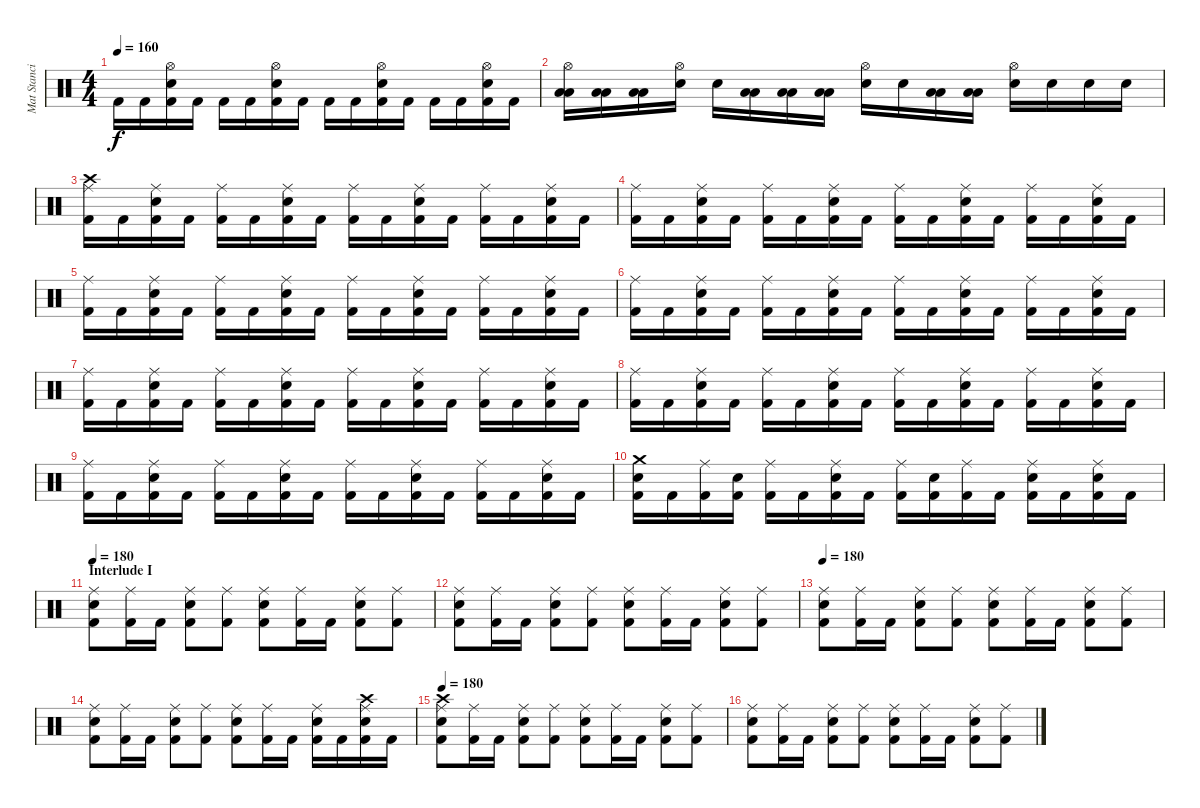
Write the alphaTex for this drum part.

\track ("Mat Stancioiu" "Mat Stanci") {instrument percussion}
\staff {score}
\articulation defaults
\ts (4 4)
\tempo 160
\clef neutral
\ks c "Kick (hit) 2".16{dy f} "Kick (hit) 2".16
("Electric Snare (hit)" "Kick (hit) 2" "Hi-Hat (open)").16 "Kick (hit) 2".16 "Kick (hit) 2".16 "Kick (hit) 2".16 ("Electric Snare (hit)" "Kick (hit) 2" "Hi-Hat (open)").16 "Kick (hit) 2".16 "Kick (hit) 2".16 "Kick (hit) 2".16 ("Electric Snare (hit)" "Kick (hit) 2" "Hi-Hat (open)").16 "Kick (hit) 2".16 "Kick (hit) 2".16 "Kick (hit) 2".16 ("Electric Snare (hit)" "Kick (hit) 2" "Hi-Hat (open)").16 "Kick (hit) 2".16 |
("Low Tom (hit)" "Low Tom (hit)" "Hi-Hat (open)").16 ("Low Tom (hit)" "Low Tom (hit)").16 ("Low Tom (hit)" "Low Tom (hit)").16 ("Electric Snare (hit)" "Hi-Hat (open)").16 "Electric Snare (hit)".16 ("Low Tom (hit)" "Low Tom (hit)").16 ("Low Tom (hit)" "Low Tom (hit)").16 ("Low Tom (hit)" "Low Tom (hit)").16 ("Electric Snare (hit)" "Hi-Hat (open)").16 "Electric Snare (hit)".16 ("Low Tom (hit)" "Low Tom (hit)").16 ("Low Tom (hit)" "Low Tom (hit)").16 ("Electric Snare (hit)" "Hi-Hat (open)").16 "Electric Snare (hit)".16 "Electric Snare (hit)".16 "Electric Snare (hit)".16 |
("Crash high (hit)" "Kick (hit) 2" "Ride (middle)").16 "Kick (hit) 2".16 ("Electric Snare (hit)" "Kick (hit) 2" "Ride (middle)").16 "Kick (hit) 2".16 ("Kick (hit) 2" "Ride (middle)").16 "Kick (hit) 2".16 ("Electric Snare (hit)" "Kick (hit) 2" "Ride (middle)").16 "Kick (hit) 2".16 ("Kick (hit) 2" "Ride (middle)").16 "Kick (hit) 2".16 ("Electric Snare (hit)" "Kick (hit) 2" "Ride (middle)").16 "Kick (hit) 2".16 ("Kick (hit) 2" "Ride (middle)").16 "Kick (hit) 2".16 ("Electric Snare (hit)" "Kick (hit) 2" "Ride (middle)").16 "Kick (hit) 2".16 |
("Kick (hit) 2" "Ride (middle)").16 "Kick (hit) 2".16 ("Electric Snare (hit)" "Kick (hit) 2" "Ride (middle)").16 "Kick (hit) 2".16 ("Kick (hit) 2" "Ride (middle)").16 "Kick (hit) 2".16 ("Electric Snare (hit)" "Kick (hit) 2" "Ride (middle)").16 "Kick (hit) 2".16 ("Kick (hit) 2" "Ride (middle)").16 "Kick (hit) 2".16 ("Electric Snare (hit)" "Kick (hit) 2" "Ride (middle)").16 "Kick (hit) 2".16 ("Kick (hit) 2" "Ride (middle)").16 "Kick (hit) 2".16 ("Electric Snare (hit)" "Kick (hit) 2" "Ride (middle)").16 "Kick (hit) 2".16 |
("Kick (hit) 2" "Ride (middle)").16 "Kick (hit) 2".16 ("Electric Snare (hit)" "Kick (hit) 2" "Ride (middle)").16 "Kick (hit) 2".16 ("Kick (hit) 2" "Ride (middle)").16 "Kick (hit) 2".16 ("Electric Snare (hit)" "Kick (hit) 2" "Ride (middle)").16 "Kick (hit) 2".16 ("Kick (hit) 2" "Ride (middle)").16 "Kick (hit) 2".16 ("Electric Snare (hit)" "Kick (hit) 2" "Ride (middle)").16 "Kick (hit) 2".16 ("Kick (hit) 2" "Ride (middle)").16 "Kick (hit) 2".16 ("Electric Snare (hit)" "Kick (hit) 2" "Ride (middle)").16 "Kick (hit) 2".16 |
("Kick (hit) 2" "Ride (middle)").16 "Kick (hit) 2".16 ("Electric Snare (hit)" "Kick (hit) 2" "Ride (middle)").16 "Kick (hit) 2".16 ("Kick (hit) 2" "Ride (middle)").16 "Kick (hit) 2".16 ("Electric Snare (hit)" "Kick (hit) 2" "Ride (middle)").16 "Kick (hit) 2".16 ("Kick (hit) 2" "Ride (middle)").16 "Kick (hit) 2".16 ("Electric Snare (hit)" "Kick (hit) 2" "Ride (middle)").16 "Kick (hit) 2".16 ("Kick (hit) 2" "Ride (middle)").16 "Kick (hit) 2".16 ("Electric Snare (hit)" "Kick (hit) 2" "Ride (middle)").16 "Kick (hit) 2".16 |
("Kick (hit) 2" "Ride (middle)").16 "Kick (hit) 2".16 ("Electric Snare (hit)" "Kick (hit) 2" "Ride (middle)").16 "Kick (hit) 2".16 ("Kick (hit) 2" "Ride (middle)").16 "Kick (hit) 2".16 ("Electric Snare (hit)" "Kick (hit) 2" "Ride (middle)").16 "Kick (hit) 2".16 ("Kick (hit) 2" "Ride (middle)").16 "Kick (hit) 2".16 ("Electric Snare (hit)" "Kick (hit) 2" "Ride (middle)").16 "Kick (hit) 2".16 ("Kick (hit) 2" "Ride (middle)").16 "Kick (hit) 2".16 ("Electric Snare (hit)" "Kick (hit) 2" "Ride (middle)").16 "Kick (hit) 2".16 |
("Kick (hit) 2" "Ride (middle)").16 "Kick (hit) 2".16 ("Electric Snare (hit)" "Kick (hit) 2" "Ride (middle)").16 "Kick (hit) 2".16 ("Kick (hit) 2" "Ride (middle)").16 "Kick (hit) 2".16 ("Electric Snare (hit)" "Kick (hit) 2" "Ride (middle)").16 "Kick (hit) 2".16 ("Kick (hit) 2" "Ride (middle)").16 "Kick (hit) 2".16 ("Electric Snare (hit)" "Kick (hit) 2" "Ride (middle)").16 "Kick (hit) 2".16 ("Kick (hit) 2" "Ride (middle)").16 "Kick (hit) 2".16 ("Electric Snare (hit)" "Kick (hit) 2" "Ride (middle)").16 "Kick (hit) 2".16 |
("Kick (hit) 2" "Ride (middle)").16 "Kick (hit) 2".16 ("Electric Snare (hit)" "Kick (hit) 2" "Ride (middle)").16 "Kick (hit) 2".16 ("Kick (hit) 2" "Ride (middle)").16 "Kick (hit) 2".16 ("Electric Snare (hit)" "Kick (hit) 2" "Ride (middle)").16 "Kick (hit) 2".16 ("Kick (hit) 2" "Ride (middle)").16 "Kick (hit) 2".16 ("Electric Snare (hit)" "Kick (hit) 2" "Ride (middle)").16 "Kick (hit) 2".16 ("Kick (hit) 2" "Ride (middle)").16 "Kick (hit) 2".16 ("Electric Snare (hit)" "Kick (hit) 2" "Ride (middle)").16 "Kick (hit) 2".16 |
("Kick (hit) 2" "Crash medium (hit)" "Electric Snare (hit)").16 "Kick (hit) 2".16 ("Kick (hit) 2" "Ride (middle)").16 ("Kick (hit) 2" "Electric Snare (hit)").16 ("Kick (hit) 2" "Ride (middle)").16 "Kick (hit) 2".16 ("Kick (hit) 2" "Ride (middle)" "Electric Snare (hit)").16 "Kick (hit) 2".16 ("Kick (hit) 2" "Ride (middle)").16 ("Kick (hit) 2" "Electric Snare (hit)").16 ("Kick (hit) 2" "Ride (middle)").16 "Kick (hit) 2".16 ("Kick (hit) 2" "Ride (middle)" "Electric Snare (hit)").16 "Kick (hit) 2".16 ("Kick (hit) 2" "Ride (middle)" "Electric Snare (hit)").16 "Kick (hit) 2".16 |
\section ("" "Interlude I")
\tempo 180
("Kick (hit) 2" "Electric Snare (hit)" "Ride (middle)").8 ("Kick (hit) 2" "Ride (middle)").16 "Kick (hit) 2".16 ("Kick (hit) 2" "Electric Snare (hit)" "Ride (middle)").8 ("Kick (hit) 2" "Ride (middle)").8 ("Kick (hit) 2" "Electric Snare (hit)" "Ride (middle)").8 ("Kick (hit) 2" "Ride (middle)").16 "Kick (hit) 2".16 ("Kick (hit) 2" "Electric Snare (hit)" "Ride (middle)").8 ("Kick (hit) 2" "Ride (middle)").8 |
("Kick (hit) 2" "Electric Snare (hit)" "Ride (middle)").8 ("Kick (hit) 2" "Ride (middle)").16 "Kick (hit) 2".16 ("Kick (hit) 2" "Electric Snare (hit)" "Ride (middle)").8 ("Kick (hit) 2" "Ride (middle)").8 ("Kick (hit) 2" "Electric Snare (hit)" "Ride (middle)").8 ("Kick (hit) 2" "Ride (middle)").16 "Kick (hit) 2".16 ("Kick (hit) 2" "Electric Snare (hit)" "Ride (middle)").8 ("Kick (hit) 2" "Ride (middle)").8 |
\tempo 180
("Kick (hit) 2" "Electric Snare (hit)" "Ride (middle)").8 ("Kick (hit) 2" "Ride (middle)").16 "Kick (hit) 2".16 ("Kick (hit) 2" "Electric Snare (hit)" "Ride (middle)").8 ("Kick (hit) 2" "Ride (middle)").8 ("Kick (hit) 2" "Electric Snare (hit)" "Ride (middle)").8 ("Kick (hit) 2" "Ride (middle)").16 "Kick (hit) 2".16 ("Kick (hit) 2" "Electric Snare (hit)" "Ride (middle)").8 ("Kick (hit) 2" "Ride (middle)").8 |
("Kick (hit) 2" "Electric Snare (hit)" "Ride (middle)").8 ("Kick (hit) 2" "Ride (middle)").16 "Kick (hit) 2".16 ("Kick (hit) 2" "Electric Snare (hit)" "Ride (middle)").8 ("Kick (hit) 2" "Ride (middle)").8 ("Kick (hit) 2" "Electric Snare (hit)" "Ride (middle)").8 ("Kick (hit) 2" "Ride (middle)").16 "Kick (hit) 2".16 ("Kick (hit) 2" "Electric Snare (hit)" "Ride (middle)").16 "Kick (hit) 2".16 ("Kick (hit) 2" "Electric Snare (hit)" "Ride (middle)" "Crash high (hit)").16 "Kick (hit) 2".16 |
\tempo 180
("Kick (hit) 2" "Electric Snare (hit)" "Ride (middle)" "Crash high (hit)").8 ("Kick (hit) 2" "Ride (middle)").16 "Kick (hit) 2".16 ("Kick (hit) 2" "Electric Snare (hit)" "Ride (middle)").8 ("Kick (hit) 2" "Ride (middle)").8 ("Kick (hit) 2" "Electric Snare (hit)" "Ride (middle)").8 ("Kick (hit) 2" "Ride (middle)").16 "Kick (hit) 2".16 ("Kick (hit) 2" "Electric Snare (hit)" "Ride (middle)").8 ("Kick (hit) 2" "Ride (middle)").8 |
("Kick (hit) 2" "Electric Snare (hit)" "Ride (middle)").8 ("Kick (hit) 2" "Ride (middle)").16 "Kick (hit) 2".16 ("Kick (hit) 2" "Electric Snare (hit)" "Ride (middle)").8 ("Kick (hit) 2" "Ride (middle)").8 ("Kick (hit) 2" "Electric Snare (hit)" "Ride (middle)").8 ("Kick (hit) 2" "Ride (middle)").16 "Kick (hit) 2".16 ("Kick (hit) 2" "Electric Snare (hit)" "Ride (middle)").8 ("Kick (hit) 2" "Ride (middle)").8
